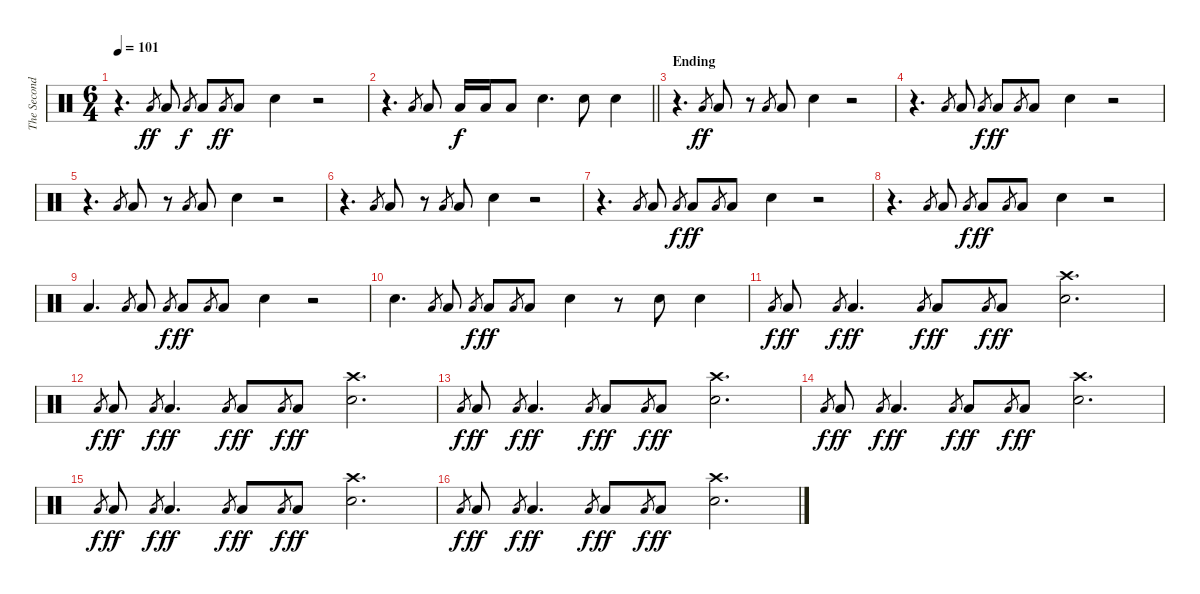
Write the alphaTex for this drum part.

\track ("The Second Drummer" "The Second") {instrument percussion}
\staff {score}
\articulation defaults
\ts (6 4)
\tempo 101
\clef neutral
\ks c
r.4{d dy ff} "Low Floor Tom (hit)".8{gr} "Low Floor Tom (hit)".8 "Low Floor Tom (hit)".8{gr dy f} "Low Floor Tom (hit)".8 "Low Floor Tom (hit)".8{gr dy ff} "Low Floor Tom (hit)".8 "Electric Snare (hit)".4 r.2 |
\barLineRight lightlight
r.4{d} "Low Floor Tom (hit)".8{gr} "Low Floor Tom (hit)".8 "Low Floor Tom (hit)".16{dy f} "Low Floor Tom (hit)".16 "Low Floor Tom (hit)".8 "Electric Snare (hit)".4{d} "Electric Snare (hit)".8 "Electric Snare (hit)".4 |
\section ("" "Ending")
r.4{d} "Low Floor Tom (hit)".8{gr dy ff} "Low Floor Tom (hit)".8 r.8 "Low Floor Tom (hit)".8{gr} "Low Floor Tom (hit)".8 "Electric Snare (hit)".4 r.2 |
r.4{d} "Low Floor Tom (hit)".8{gr} "Low Floor Tom (hit)".8 "Low Floor Tom (hit)".8{gr dy f} "Low Floor Tom (hit)".8{dy ff} "Low Floor Tom (hit)".8{gr} "Low Floor Tom (hit)".8 "Electric Snare (hit)".4 r.2 |
r.4{d} "Low Floor Tom (hit)".8{gr} "Low Floor Tom (hit)".8 r.8 "Low Floor Tom (hit)".8{gr} "Low Floor Tom (hit)".8 "Electric Snare (hit)".4 r.2 |
r.4{d} "Low Floor Tom (hit)".8{gr} "Low Floor Tom (hit)".8 r.8 "Low Floor Tom (hit)".8{gr} "Low Floor Tom (hit)".8 "Electric Snare (hit)".4 r.2 |
r.4{d} "Low Floor Tom (hit)".8{gr} "Low Floor Tom (hit)".8 "Low Floor Tom (hit)".8{gr dy f} "Low Floor Tom (hit)".8{dy ff} "Low Floor Tom (hit)".8{gr} "Low Floor Tom (hit)".8 "Electric Snare (hit)".4 r.2 |
r.4{d} "Low Floor Tom (hit)".8{gr} "Low Floor Tom (hit)".8 "Low Floor Tom (hit)".8{gr dy f} "Low Floor Tom (hit)".8{dy ff} "Low Floor Tom (hit)".8{gr} "Low Floor Tom (hit)".8 "Electric Snare (hit)".4 r.2 |
"Low Floor Tom (hit)".4{d} "Low Floor Tom (hit)".8{gr} "Low Floor Tom (hit)".8 "Low Floor Tom (hit)".8{gr dy f} "Low Floor Tom (hit)".8{dy ff} "Low Floor Tom (hit)".8{gr} "Low Floor Tom (hit)".8 "Electric Snare (hit)".4 r.2 |
"Electric Snare (hit)".4{d} "Low Floor Tom (hit)".8{gr} "Low Floor Tom (hit)".8 "Low Floor Tom (hit)".8{gr dy f} "Low Floor Tom (hit)".8{dy ff} "Low Floor Tom (hit)".8{gr} "Low Floor Tom (hit)".8 "Electric Snare (hit)".4 r.8 "Electric Snare (hit)".8 "Electric Snare (hit)".4 |
"Low Floor Tom (hit)".8{gr dy f} "Low Floor Tom (hit)".8{dy ff} "Low Floor Tom (hit)".8{gr dy f} "Low Floor Tom (hit)".4{d dy ff} "Low Floor Tom (hit)".8{gr dy f} "Low Floor Tom (hit)".8{dy ff} "Low Floor Tom (hit)".8{gr dy f} "Low Floor Tom (hit)".8{dy ff} ("Crash high (hit)" "Electric Snare (hit)").2{d} |
"Low Floor Tom (hit)".8{gr dy f} "Low Floor Tom (hit)".8{dy ff} "Low Floor Tom (hit)".8{gr dy f} "Low Floor Tom (hit)".4{d dy ff} "Low Floor Tom (hit)".8{gr dy f} "Low Floor Tom (hit)".8{dy ff} "Low Floor Tom (hit)".8{gr dy f} "Low Floor Tom (hit)".8{dy ff} ("Crash high (hit)" "Electric Snare (hit)").2{d} |
"Low Floor Tom (hit)".8{gr dy f} "Low Floor Tom (hit)".8{dy ff} "Low Floor Tom (hit)".8{gr dy f} "Low Floor Tom (hit)".4{d dy ff} "Low Floor Tom (hit)".8{gr dy f} "Low Floor Tom (hit)".8{dy ff} "Low Floor Tom (hit)".8{gr dy f} "Low Floor Tom (hit)".8{dy ff} ("Crash high (hit)" "Electric Snare (hit)").2{d} |
"Low Floor Tom (hit)".8{gr dy f} "Low Floor Tom (hit)".8{dy ff} "Low Floor Tom (hit)".8{gr dy f} "Low Floor Tom (hit)".4{d dy ff} "Low Floor Tom (hit)".8{gr dy f} "Low Floor Tom (hit)".8{dy ff} "Low Floor Tom (hit)".8{gr dy f} "Low Floor Tom (hit)".8{dy ff} ("Crash high (hit)" "Electric Snare (hit)").2{d} |
"Low Floor Tom (hit)".8{gr dy f} "Low Floor Tom (hit)".8{dy ff} "Low Floor Tom (hit)".8{gr dy f} "Low Floor Tom (hit)".4{d dy ff} "Low Floor Tom (hit)".8{gr dy f} "Low Floor Tom (hit)".8{dy ff} "Low Floor Tom (hit)".8{gr dy f} "Low Floor Tom (hit)".8{dy ff} ("Crash high (hit)" "Electric Snare (hit)").2{d} |
"Low Floor Tom (hit)".8{gr dy f} "Low Floor Tom (hit)".8{dy ff} "Low Floor Tom (hit)".8{gr dy f} "Low Floor Tom (hit)".4{d dy ff} "Low Floor Tom (hit)".8{gr dy f} "Low Floor Tom (hit)".8{dy ff} "Low Floor Tom (hit)".8{gr dy f} "Low Floor Tom (hit)".8{dy ff} ("Crash high (hit)" "Electric Snare (hit)").2{d}
